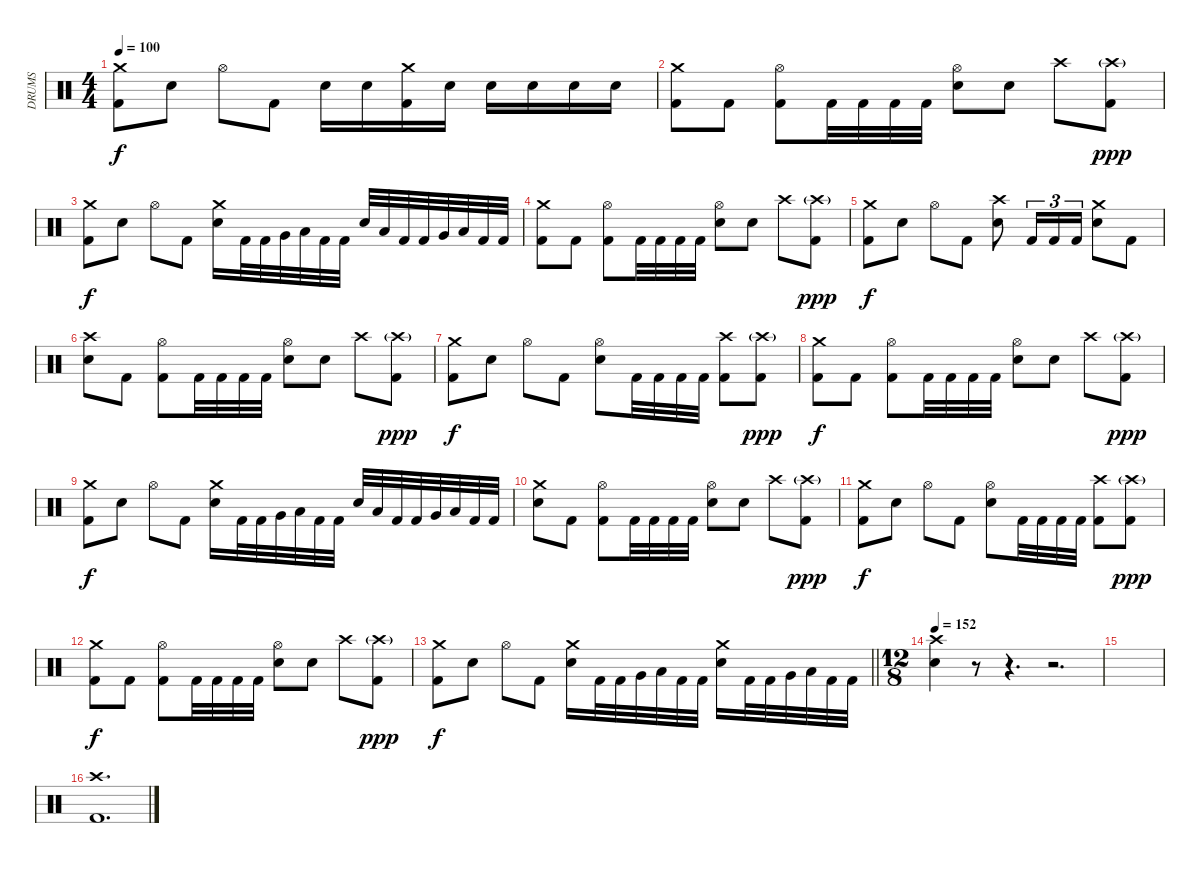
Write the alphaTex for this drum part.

\track ("DRUMS" "DRUMS") {instrument percussion}
\staff {score}
\articulation defaults
\ts (4 4)
\tempo 100
\clef neutral
\ks c
("Crash medium (hit)" "Kick (hit) 2").8{dy f} "Snare (hit) 2".8 "Hi-Hat (open)".8 "Kick (hit) 2".8 "Snare (hit) 2".16 "Snare (hit) 2".16 ("Crash medium (hit)" "Kick (hit) 2").16 "Snare (hit) 2".16 "Snare (hit) 2".16 "Snare (hit) 2".16 "Snare (hit) 2".16 "Snare (hit) 2".16 |
("Crash medium (hit)" "Kick (hit) 2").8 "Kick (hit) 2".8 ("Hi-Hat (open)" "Kick (hit) 2").8 "Kick (hit) 2".32 "Kick (hit) 2".32 "Kick (hit) 2".32 "Kick (hit) 2".32 ("Hi-Hat (open)" "Snare (hit) 2").8 "Snare (hit) 2".8 "Crash high (hit)".8 ("Crash high (hit)"{g} "Kick (hit) 2").8{dy ppp} |
("Crash medium (hit)" "Kick (hit) 2").8{dy f} "Snare (hit) 2".8 "Hi-Hat (open)".8 "Kick (hit) 2".8 ("Crash medium (hit)" "Snare (hit) 2").16 "Kick (hit) 2".32 "Kick (hit) 2".32 "Very Low Tom (hit)".32 "Low Floor Tom (hit)".32 "Kick (hit) 2".32 "Kick (hit) 2".32 "Snare (hit) 2".32 "Low Floor Tom (hit)".32 "Kick (hit) 2".32 "Kick (hit) 2".32 "Very Low Tom (hit)".32 "Low Floor Tom (hit)".32 "Kick (hit) 2".32 "Kick (hit) 2".32 |
("Crash medium (hit)" "Kick (hit) 2").8 "Kick (hit) 2".8 ("Hi-Hat (open)" "Kick (hit) 2").8 "Kick (hit) 2".32 "Kick (hit) 2".32 "Kick (hit) 2".32 "Kick (hit) 2".32 ("Hi-Hat (open)" "Snare (hit) 2").8 "Snare (hit) 2".8 "Crash high (hit)".8 ("Crash high (hit)"{g} "Kick (hit) 2").8{dy ppp} |
("Crash medium (hit)" "Kick (hit) 2").8{dy f} "Snare (hit) 2".8 "Hi-Hat (open)".8 "Kick (hit) 2".8 ("Crash high (hit)" "Snare (hit) 2").8 "Kick (hit) 2".16{tu (3 2)} "Kick (hit) 2".16{tu (3 2)} "Kick (hit) 2".16{tu (3 2)} ("Crash medium (hit)" "Snare (hit) 2").8 "Kick (hit) 2".8 |
("Crash high (hit)" "Snare (hit) 2").8 "Kick (hit) 2".8 ("Hi-Hat (open)" "Kick (hit) 2").8 "Kick (hit) 2".32 "Kick (hit) 2".32 "Kick (hit) 2".32 "Kick (hit) 2".32 ("Hi-Hat (open)" "Snare (hit) 2").8 "Snare (hit) 2".8 "Crash high (hit)".8 ("Crash high (hit)"{g} "Kick (hit) 2").8{dy ppp} |
("Crash medium (hit)" "Kick (hit) 2").8{dy f} "Snare (hit) 2".8 "Hi-Hat (open)".8 "Kick (hit) 2".8 ("Hi-Hat (open)" "Snare (hit) 2").8 "Kick (hit) 2".32 "Kick (hit) 2".32 "Kick (hit) 2".32 "Kick (hit) 2".32 ("Crash high (hit)" "Kick (hit) 2").8 ("Crash high (hit)"{g} "Kick (hit) 2").8{dy ppp} |
("Crash medium (hit)" "Kick (hit) 2").8{dy f} "Kick (hit) 2".8 ("Hi-Hat (open)" "Kick (hit) 2").8 "Kick (hit) 2".32 "Kick (hit) 2".32 "Kick (hit) 2".32 "Kick (hit) 2".32 ("Hi-Hat (open)" "Snare (hit) 2").8 "Snare (hit) 2".8 "Crash high (hit)".8 ("Crash high (hit)"{g} "Kick (hit) 2").8{dy ppp} |
("Crash medium (hit)" "Kick (hit) 2").8{dy f} "Snare (hit) 2".8 "Hi-Hat (open)".8 "Kick (hit) 2".8 ("Crash medium (hit)" "Snare (hit) 2").16 "Kick (hit) 2".32 "Kick (hit) 2".32 "Very Low Tom (hit)".32 "Low Floor Tom (hit)".32 "Kick (hit) 2".32 "Kick (hit) 2".32 "Snare (hit) 2".32 "Low Floor Tom (hit)".32 "Kick (hit) 2".32 "Kick (hit) 2".32 "Very Low Tom (hit)".32 "Low Floor Tom (hit)".32 "Kick (hit) 2".32 "Kick (hit) 2".32 |
("Crash medium (hit)" "Snare (hit) 2").8 "Kick (hit) 2".8 ("Hi-Hat (open)" "Kick (hit) 2").8 "Kick (hit) 2".32 "Kick (hit) 2".32 "Kick (hit) 2".32 "Kick (hit) 2".32 ("Hi-Hat (open)" "Snare (hit) 2").8 "Snare (hit) 2".8 "Crash high (hit)".8 ("Crash high (hit)"{g} "Kick (hit) 2").8{dy ppp} |
("Crash medium (hit)" "Kick (hit) 2").8{dy f} "Snare (hit) 2".8 "Hi-Hat (open)".8 "Kick (hit) 2".8 ("Hi-Hat (open)" "Snare (hit) 2").8 "Kick (hit) 2".32 "Kick (hit) 2".32 "Kick (hit) 2".32 "Kick (hit) 2".32 ("Crash high (hit)" "Kick (hit) 2").8 ("Crash high (hit)"{g} "Kick (hit) 2").8{dy ppp} |
("Crash medium (hit)" "Kick (hit) 2").8{dy f} "Kick (hit) 2".8 ("Hi-Hat (open)" "Kick (hit) 2").8 "Kick (hit) 2".32 "Kick (hit) 2".32 "Kick (hit) 2".32 "Kick (hit) 2".32 ("Hi-Hat (open)" "Snare (hit) 2").8 "Snare (hit) 2".8 "Crash high (hit)".8 ("Crash high (hit)"{g} "Kick (hit) 2").8{dy ppp} |
\barLineRight lightlight
("Crash medium (hit)" "Kick (hit) 2").8{dy f} "Snare (hit) 2".8 "Hi-Hat (open)".8 "Kick (hit) 2".8 ("Crash medium (hit)" "Snare (hit) 2").16 "Kick (hit) 2".32 "Kick (hit) 2".32 "Very Low Tom (hit)".32 "Low Floor Tom (hit)".32 "Kick (hit) 2".32 "Kick (hit) 2".32 ("Crash medium (hit)" "Snare (hit) 2").16 "Kick (hit) 2".32 "Kick (hit) 2".32 "Very Low Tom (hit)".32 "Low Floor Tom (hit)".32 "Kick (hit) 2".32 "Kick (hit) 2".32 |
\ts (12 8)
\tempo 152
("Crash high (hit)" "Snare (hit) 2").4 r.8 r.4{d} r.2{d} |
|
("Crash high (hit)" "Kick (hit) 2").1{d}
